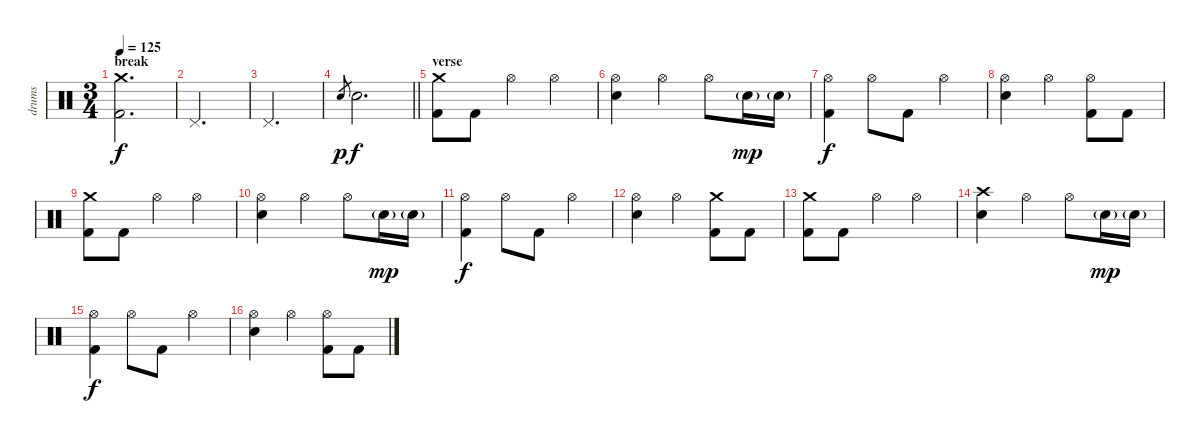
\track ("drums" "drums") {instrument percussion}
\staff {score}
\articulation defaults
\ts (3 4)
\section ("" "break")
\tempo 125
\clef neutral
\ks c
("Crash medium (hit)" "Kick (hit) 2").2{d dy f} |
"Pedal Hi-Hat (hit)".2{d} |
"Pedal Hi-Hat (hit)".2{d} |
\barLineRight lightlight "Electric Snare (hit)".8{gr dy p} "Electric Snare (hit)".2{d dy f}
|
\section ("" "verse")
("Crash medium (hit)" "Kick (hit) 2").8 "Kick (hit) 2".8 "Hi-Hat (open)".4 "Hi-Hat (open)".4 |
("Hi-Hat (open)" "Electric Snare (hit)").4 "Hi-Hat (open)".4 "Hi-Hat (open)".8 "Electric Snare (hit)"{g}.16{dy mp} "Electric Snare (hit)"{g}.16 |
("Hi-Hat (open)" "Kick (hit) 2").4{dy f} "Hi-Hat (open)".8 "Kick (hit) 2".8 "Hi-Hat (open)".4 |
("Hi-Hat (open)" "Electric Snare (hit)").4 "Hi-Hat (open)".4 ("Hi-Hat (open)" "Kick (hit) 2").8 "Kick (hit) 2".8 |
("Crash medium (hit)" "Kick (hit) 2").8 "Kick (hit) 2".8 "Hi-Hat (open)".4 "Hi-Hat (open)".4 |
("Hi-Hat (open)" "Electric Snare (hit)").4 "Hi-Hat (open)".4 "Hi-Hat (open)".8 "Electric Snare (hit)"{g}.16{dy mp} "Electric Snare (hit)"{g}.16 |
("Hi-Hat (open)" "Kick (hit) 2").4{dy f} "Hi-Hat (open)".8 "Kick (hit) 2".8 "Hi-Hat (open)".4 |
("Hi-Hat (open)" "Electric Snare (hit)").4 "Hi-Hat (open)".4 ("Crash medium (hit)" "Kick (hit) 2").8 "Kick (hit) 2".8 |
("Crash medium (hit)" "Kick (hit) 2").8 "Kick (hit) 2".8 "Hi-Hat (open)".4 "Hi-Hat (open)".4 |
("Crash high (hit)" "Electric Snare (hit)").4 "Hi-Hat (open)".4 "Hi-Hat (open)".8 "Electric Snare (hit)"{g}.16{dy mp} "Electric Snare (hit)"{g}.16 |
("Hi-Hat (open)" "Kick (hit) 2").4{dy f} "Hi-Hat (open)".8 "Kick (hit) 2".8 "Hi-Hat (open)".4 |
("Hi-Hat (open)" "Electric Snare (hit)").4 "Hi-Hat (open)".4 ("Hi-Hat (open)" "Kick (hit) 2").8 "Kick (hit) 2".8
